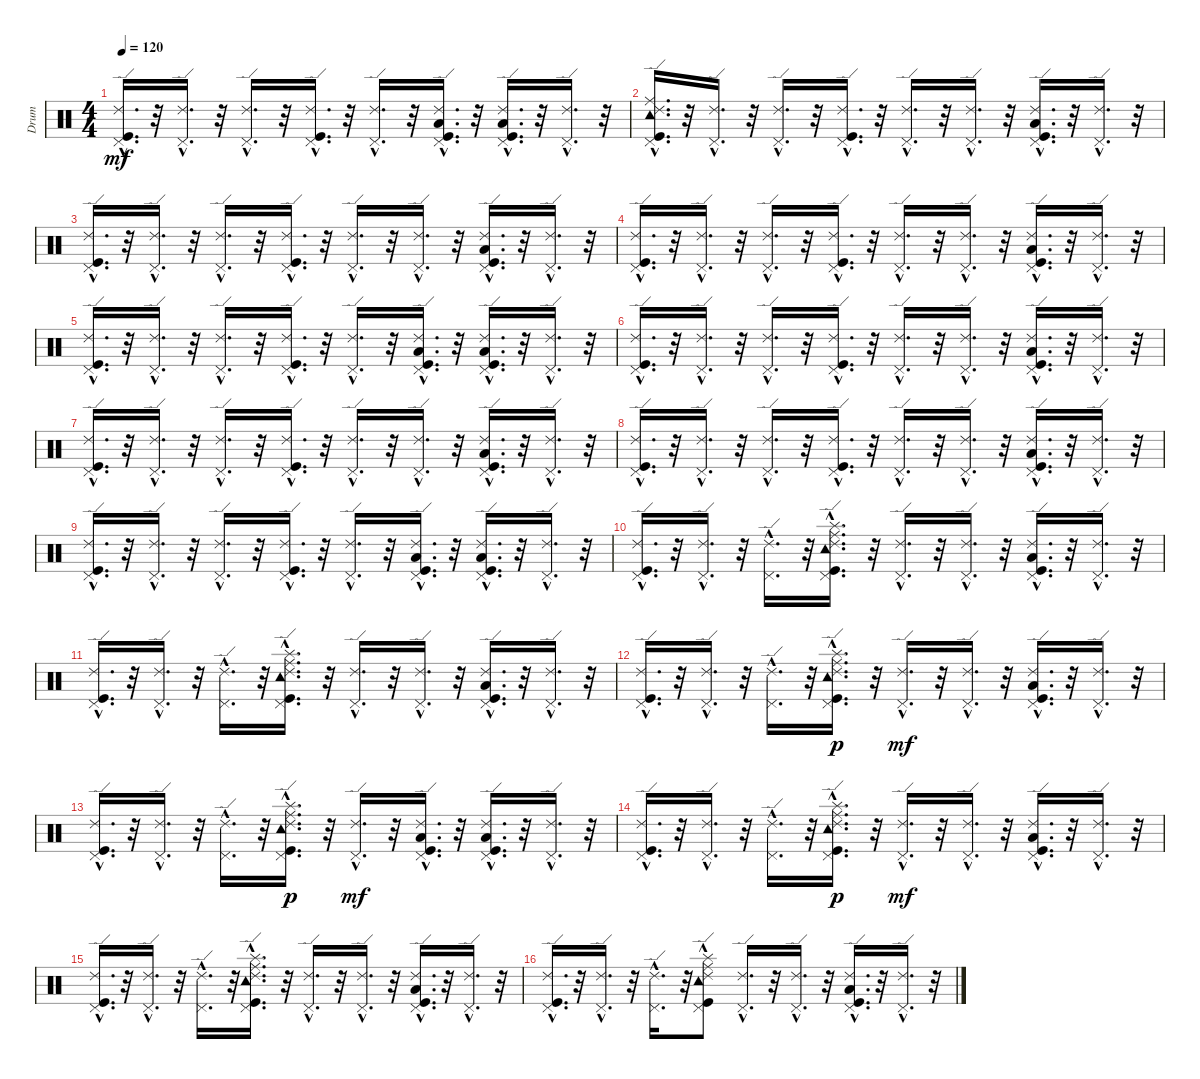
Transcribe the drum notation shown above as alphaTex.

\track ("Drum" "Drum") {instrument percussion}
\staff {score}
\articulation defaults
\ts (4 4)
\tempo 120
\clef neutral
\ks c
("Ride (edge) 2"{hac} "Kick (hit)"{hac} "Pedal Hi-Hat (hit)"{hac}).16{d dy mf} r.32 ("Ride (edge) 2"{hac} "Pedal Hi-Hat (hit)"{hac}).16{d} r.32 ("Ride (edge) 2"{hac} "Pedal Hi-Hat (hit)"{hac}).16{d} r.32 ("Ride (edge) 2"{hac} "Kick (hit)"{hac} "Pedal Hi-Hat (hit)"{hac}).16{d} r.32 ("Ride (edge) 2"{hac} "Pedal Hi-Hat (hit)"{hac}).16{d} r.32 ("Ride (edge) 2"{hac} "Pedal Hi-Hat (hit)"{hac} "Kick (hit)"{hac} "Low Tom (hit)"{hac}).16{d} r.32 ("Ride (edge) 2"{hac} "Low Tom (hit)"{hac} "Kick (hit)"{hac} "Pedal Hi-Hat (hit)"{hac}).16{d} r.32 ("Ride (edge) 2"{hac} "Pedal Hi-Hat (hit)"{hac}).16{d} r.32 |
("Tambourine (hit)"{hac} "Ride (middle)"{hac} "Pedal Hi-Hat (hit)"{hac} "Kick (hit)"{hac} "Ride (edge) 2"{hac}).16{d} r.32 ("Pedal Hi-Hat (hit)"{hac} "Ride (edge) 2"{hac}).16{d} r.32 ("Pedal Hi-Hat (hit)"{hac} "Ride (edge) 2"{hac}).16{d} r.32 ("Pedal Hi-Hat (hit)"{hac} "Kick (hit)"{hac} "Ride (edge) 2"{hac}).16{d} r.32 ("Pedal Hi-Hat (hit)"{hac} "Ride (edge) 2"{hac}).16{d} r.32 ("Pedal Hi-Hat (hit)"{hac} "Ride (edge) 2"{hac}).16{d} r.32 ("Pedal Hi-Hat (hit)"{hac} "Kick (hit)"{hac} "Low Tom (hit)"{hac} "Ride (edge) 2"{hac}).16{d} r.32 ("Pedal Hi-Hat (hit)"{hac} "Ride (edge) 2"{hac}).16{d} r.32 |
("Ride (edge) 2"{hac} "Kick (hit)"{hac} "Pedal Hi-Hat (hit)"{hac}).16{d} r.32 ("Ride (edge) 2"{hac} "Pedal Hi-Hat (hit)"{hac}).16{d} r.32 ("Ride (edge) 2"{hac} "Pedal Hi-Hat (hit)"{hac}).16{d} r.32 ("Ride (edge) 2"{hac} "Kick (hit)"{hac} "Pedal Hi-Hat (hit)"{hac}).16{d} r.32 ("Ride (edge) 2"{hac} "Pedal Hi-Hat (hit)"{hac}).16{d} r.32 ("Ride (edge) 2"{hac} "Pedal Hi-Hat (hit)"{hac}).16{d} r.32 ("Ride (edge) 2"{hac} "Low Tom (hit)"{hac} "Kick (hit)"{hac} "Pedal Hi-Hat (hit)"{hac}).16{d} r.32 ("Ride (edge) 2"{hac} "Pedal Hi-Hat (hit)"{hac}).16{d} r.32 |
("Ride (edge) 2"{hac} "Kick (hit)"{hac} "Pedal Hi-Hat (hit)"{hac}).16{d} r.32 ("Ride (edge) 2"{hac} "Pedal Hi-Hat (hit)"{hac}).16{d} r.32 ("Ride (edge) 2"{hac} "Pedal Hi-Hat (hit)"{hac}).16{d} r.32 ("Ride (edge) 2"{hac} "Kick (hit)"{hac} "Pedal Hi-Hat (hit)"{hac}).16{d} r.32 ("Ride (edge) 2"{hac} "Pedal Hi-Hat (hit)"{hac}).16{d} r.32 ("Ride (edge) 2"{hac} "Pedal Hi-Hat (hit)"{hac}).16{d} r.32 ("Ride (edge) 2"{hac} "Low Tom (hit)"{hac} "Kick (hit)"{hac} "Pedal Hi-Hat (hit)"{hac}).16{d} r.32 ("Ride (edge) 2"{hac} "Pedal Hi-Hat (hit)"{hac}).16{d} r.32 |
("Ride (edge) 2"{hac} "Kick (hit)"{hac} "Pedal Hi-Hat (hit)"{hac}).16{d} r.32 ("Ride (edge) 2"{hac} "Pedal Hi-Hat (hit)"{hac}).16{d} r.32 ("Ride (edge) 2"{hac} "Pedal Hi-Hat (hit)"{hac}).16{d} r.32 ("Ride (edge) 2"{hac} "Kick (hit)"{hac} "Pedal Hi-Hat (hit)"{hac}).16{d} r.32 ("Ride (edge) 2"{hac} "Pedal Hi-Hat (hit)"{hac}).16{d} r.32 ("Ride (edge) 2"{hac} "Pedal Hi-Hat (hit)"{hac} "Kick (hit)"{hac} "Low Tom (hit)"{hac}).16{d} r.32 ("Ride (edge) 2"{hac} "Low Tom (hit)"{hac} "Kick (hit)"{hac} "Pedal Hi-Hat (hit)"{hac}).16{d} r.32 ("Ride (edge) 2"{hac} "Pedal Hi-Hat (hit)"{hac}).16{d} r.32 |
("Ride (edge) 2"{hac} "Kick (hit)"{hac} "Pedal Hi-Hat (hit)"{hac}).16{d} r.32 ("Ride (edge) 2"{hac} "Pedal Hi-Hat (hit)"{hac}).16{d} r.32 ("Ride (edge) 2"{hac} "Pedal Hi-Hat (hit)"{hac}).16{d} r.32 ("Ride (edge) 2"{hac} "Kick (hit)"{hac} "Pedal Hi-Hat (hit)"{hac}).16{d} r.32 ("Ride (edge) 2"{hac} "Pedal Hi-Hat (hit)"{hac}).16{d} r.32 ("Ride (edge) 2"{hac} "Pedal Hi-Hat (hit)"{hac}).16{d} r.32 ("Ride (edge) 2"{hac} "Low Tom (hit)"{hac} "Kick (hit)"{hac} "Pedal Hi-Hat (hit)"{hac}).16{d} r.32 ("Ride (edge) 2"{hac} "Pedal Hi-Hat (hit)"{hac}).16{d} r.32 |
("Pedal Hi-Hat (hit)"{hac} "Kick (hit)"{hac} "Ride (edge) 2"{hac}).16{d} r.32 ("Pedal Hi-Hat (hit)"{hac} "Ride (edge) 2"{hac}).16{d} r.32 ("Pedal Hi-Hat (hit)"{hac} "Ride (edge) 2"{hac}).16{d} r.32 ("Pedal Hi-Hat (hit)"{hac} "Kick (hit)"{hac} "Ride (edge) 2"{hac}).16{d} r.32 ("Pedal Hi-Hat (hit)"{hac} "Ride (edge) 2"{hac}).16{d} r.32 ("Pedal Hi-Hat (hit)"{hac} "Ride (edge) 2"{hac}).16{d} r.32 ("Pedal Hi-Hat (hit)"{hac} "Kick (hit)"{hac} "Low Tom (hit)"{hac} "Ride (edge) 2"{hac}).16{d} r.32 ("Pedal Hi-Hat (hit)"{hac} "Ride (edge) 2"{hac}).16{d} r.32 |
("Pedal Hi-Hat (hit)"{hac} "Kick (hit)"{hac} "Ride (edge) 2"{hac}).16{d} r.32 ("Pedal Hi-Hat (hit)"{hac} "Ride (edge) 2"{hac}).16{d} r.32 ("Pedal Hi-Hat (hit)"{hac} "Ride (edge) 2"{hac}).16{d} r.32 ("Pedal Hi-Hat (hit)"{hac} "Kick (hit)"{hac} "Ride (edge) 2"{hac}).16{d} r.32 ("Pedal Hi-Hat (hit)"{hac} "Ride (edge) 2"{hac}).16{d} r.32 ("Pedal Hi-Hat (hit)"{hac} "Ride (edge) 2"{hac}).16{d} r.32 ("Pedal Hi-Hat (hit)"{hac} "Kick (hit)"{hac} "Low Tom (hit)"{hac} "Ride (edge) 2"{hac}).16{d} r.32 ("Pedal Hi-Hat (hit)"{hac} "Ride (edge) 2"{hac}).16{d} r.32 |
("Pedal Hi-Hat (hit)"{hac} "Kick (hit)"{hac} "Ride (edge) 2"{hac}).16{d} r.32 ("Pedal Hi-Hat (hit)"{hac} "Ride (edge) 2"{hac}).16{d} r.32 ("Pedal Hi-Hat (hit)"{hac} "Ride (edge) 2"{hac}).16{d} r.32 ("Pedal Hi-Hat (hit)"{hac} "Kick (hit)"{hac} "Ride (edge) 2"{hac}).16{d} r.32 ("Pedal Hi-Hat (hit)"{hac} "Ride (edge) 2"{hac}).16{d} r.32 ("Low Tom (hit)"{hac} "Kick (hit)"{hac} "Pedal Hi-Hat (hit)"{hac} "Ride (edge) 2"{hac}).16{d} r.32 ("Pedal Hi-Hat (hit)"{hac} "Kick (hit)"{hac} "Low Tom (hit)"{hac} "Ride (edge) 2"{hac}).16{d} r.32 ("Pedal Hi-Hat (hit)"{hac} "Ride (edge) 2"{hac}).16{d} r.32 |
("Kick (hit)"{hac} "Ride (edge) 2"{hac} "Pedal Hi-Hat (hit)"{hac}).16{d} r.32 ("Ride (edge) 2"{hac} "Pedal Hi-Hat (hit)"{hac}).16{d} r.32 ("Ride (edge) 2"{hac} "Pedal Hi-Hat (hit)"{hac}).16{d} r.32 ("Splash (hit)"{hac} "Tambourine (hit)"{hac} "Ride (middle)"{hac} "Ride (edge) 2"{hac} "Kick (hit)"{hac} "Pedal Hi-Hat (hit)"{hac}).16{d} r.32 ("Ride (edge) 2"{hac} "Pedal Hi-Hat (hit)"{hac}).16{d} r.32 ("Ride (edge) 2"{hac} "Pedal Hi-Hat (hit)"{hac}).16{d} r.32 ("Kick (hit)"{hac} "Pedal Hi-Hat (hit)"{hac} "Low Tom (hit)"{hac} "Ride (edge) 2"{hac}).16{d} r.32 ("Ride (edge) 2"{hac} "Pedal Hi-Hat (hit)"{hac}).16{d} r.32 |
("Ride (edge) 2"{hac} "Kick (hit)"{hac} "Pedal Hi-Hat (hit)"{hac}).16{d} r.32 ("Ride (edge) 2"{hac} "Pedal Hi-Hat (hit)"{hac}).16{d} r.32 ("Pedal Hi-Hat (hit)"{hac} "Ride (edge) 2"{hac}).16{d} r.32 ("Tambourine (hit)"{hac} "Splash (hit)"{hac} "Ride (middle)"{hac} "Ride (edge) 2"{hac} "Kick (hit)"{hac} "Pedal Hi-Hat (hit)"{hac}).16{d} r.32 ("Pedal Hi-Hat (hit)"{hac} "Ride (edge) 2"{hac}).16{d} r.32 ("Pedal Hi-Hat (hit)"{hac} "Ride (edge) 2"{hac}).16{d} r.32 ("Pedal Hi-Hat (hit)"{hac} "Kick (hit)"{hac} "Low Tom (hit)"{hac} "Ride (edge) 2"{hac}).16{d} r.32 ("Ride (edge) 2"{hac} "Pedal Hi-Hat (hit)"{hac}).16{d} r.32 |
("Kick (hit)"{hac} "Pedal Hi-Hat (hit)"{hac} "Ride (edge) 2"{hac}).16{d} r.32 ("Pedal Hi-Hat (hit)"{hac} "Ride (edge) 2"{hac}).16{d} r.32 ("Pedal Hi-Hat (hit)"{hac} "Ride (edge) 2"{hac}).16{d} r.32 ("Pedal Hi-Hat (hit)"{hac} "Kick (hit)"{hac} "Ride (edge) 2"{hac} "Ride (middle)"{hac} "Tambourine (hit)"{hac} "Splash (hit)"{hac}).16{d dy p} r.32 ("Pedal Hi-Hat (hit)"{hac} "Ride (edge) 2"{hac}).16{d dy mf} r.32 ("Pedal Hi-Hat (hit)"{hac} "Ride (edge) 2"{hac}).16{d} r.32 ("Kick (hit)"{hac} "Low Tom (hit)"{hac} "Pedal Hi-Hat (hit)"{hac} "Ride (edge) 2"{hac}).16{d} r.32 ("Pedal Hi-Hat (hit)"{hac} "Ride (edge) 2"{hac}).16{d} r.32 |
("Ride (edge) 2"{hac} "Kick (hit)"{hac} "Pedal Hi-Hat (hit)"{hac}).16{d} r.32 ("Pedal Hi-Hat (hit)"{hac} "Ride (edge) 2"{hac}).16{d} r.32 ("Pedal Hi-Hat (hit)"{hac} "Ride (edge) 2"{hac}).16{d} r.32 ("Pedal Hi-Hat (hit)"{hac} "Kick (hit)"{hac} "Ride (edge) 2"{hac} "Ride (middle)"{hac} "Tambourine (hit)"{hac} "Splash (hit)"{hac}).16{d dy p} r.32 ("Pedal Hi-Hat (hit)"{hac} "Ride (edge) 2"{hac}).16{d dy mf} r.32 ("Low Tom (hit)"{hac} "Pedal Hi-Hat (hit)"{hac} "Kick (hit)"{hac} "Ride (edge) 2"{hac}).16{d} r.32 ("Low Tom (hit)"{hac} "Ride (edge) 2"{hac} "Kick (hit)"{hac} "Pedal Hi-Hat (hit)"{hac}).16{d} r.32 ("Ride (edge) 2"{hac} "Pedal Hi-Hat (hit)"{hac}).16{d} r.32 |
("Pedal Hi-Hat (hit)"{hac} "Kick (hit)"{hac} "Ride (edge) 2"{hac}).16{d} r.32 ("Pedal Hi-Hat (hit)"{hac} "Ride (edge) 2"{hac}).16{d} r.32 ("Pedal Hi-Hat (hit)"{hac} "Ride (edge) 2"{hac}).16{d} r.32 ("Pedal Hi-Hat (hit)"{hac} "Kick (hit)"{hac} "Ride (edge) 2"{hac} "Ride (middle)"{hac} "Tambourine (hit)"{hac} "Splash (hit)"{hac}).16{d dy p} r.32 ("Pedal Hi-Hat (hit)"{hac} "Ride (edge) 2"{hac}).16{d dy mf} r.32 ("Pedal Hi-Hat (hit)"{hac} "Ride (edge) 2"{hac}).16{d} r.32 ("Pedal Hi-Hat (hit)"{hac} "Kick (hit)"{hac} "Low Tom (hit)"{hac} "Ride (edge) 2"{hac}).16{d} r.32 ("Pedal Hi-Hat (hit)"{hac} "Ride (edge) 2"{hac}).16{d} r.32 |
("Ride (edge) 2"{hac} "Kick (hit)"{hac} "Pedal Hi-Hat (hit)"{hac}).16{d} r.32 ("Ride (edge) 2"{hac} "Pedal Hi-Hat (hit)"{hac}).16{d} r.32 ("Ride (edge) 2"{hac} "Pedal Hi-Hat (hit)"{hac}).16{d} r.32 ("Splash (hit)"{hac} "Tambourine (hit)"{hac} "Ride (middle)"{hac} "Ride (edge) 2"{hac} "Kick (hit)"{hac} "Pedal Hi-Hat (hit)"{hac}).16{d} r.32 ("Ride (edge) 2"{hac} "Pedal Hi-Hat (hit)"{hac}).16{d} r.32 ("Ride (edge) 2"{hac} "Pedal Hi-Hat (hit)"{hac}).16{d} r.32 ("Ride (edge) 2"{hac} "Low Tom (hit)"{hac} "Kick (hit)"{hac} "Pedal Hi-Hat (hit)"{hac}).16{d} r.32 ("Ride (edge) 2"{hac} "Pedal Hi-Hat (hit)"{hac}).16{d} r.32 |
("Ride (edge) 2"{hac} "Kick (hit)"{hac} "Pedal Hi-Hat (hit)"{hac}).16{d} r.32 ("Ride (edge) 2"{hac} "Pedal Hi-Hat (hit)"{hac}).16{d} r.32 ("Ride (edge) 2"{hac} "Pedal Hi-Hat (hit)"{hac}).16{d} r.32 ("Splash (hit)" "Tambourine (hit)"{hac} "Ride (middle)"{hac} "Ride (edge) 2"{hac} "Kick (hit)"{hac} "Pedal Hi-Hat (hit)"{hac}).8 ("Ride (edge) 2"{hac} "Pedal Hi-Hat (hit)"{hac}).16{d} r.32 ("Ride (edge) 2"{hac} "Pedal Hi-Hat (hit)"{hac}).16{d} r.32 ("Ride (edge) 2"{hac} "Low Tom (hit)"{hac} "Kick (hit)"{hac} "Pedal Hi-Hat (hit)"{hac}).16{d} r.32 ("Ride (edge) 2"{hac} "Pedal Hi-Hat (hit)"{hac}).16{d} r.32
